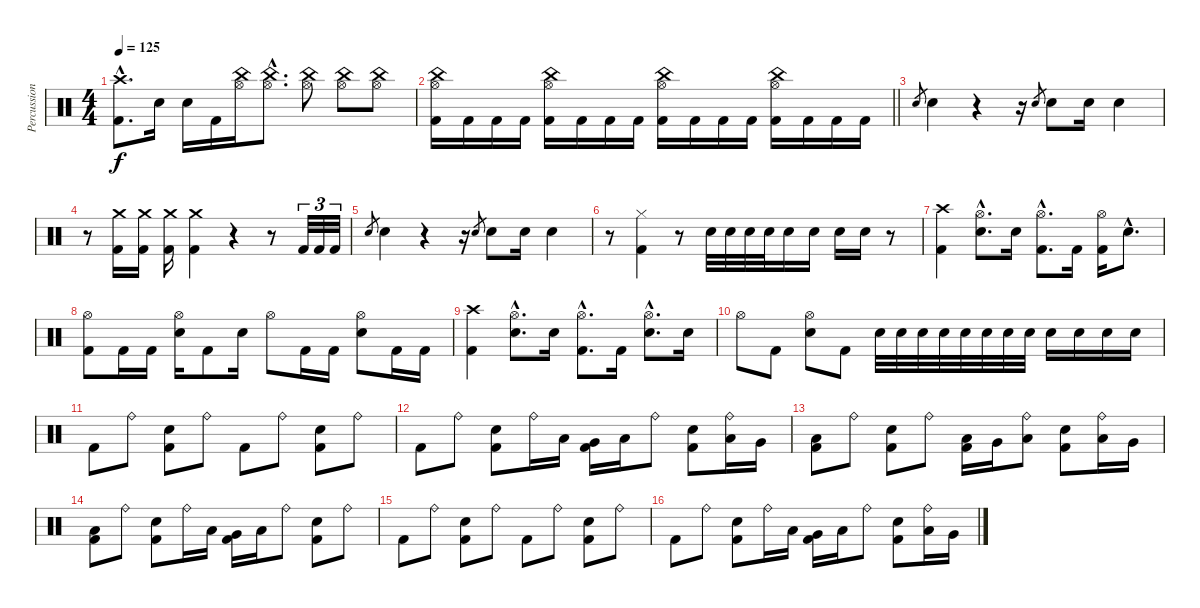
\track ("Percussion" "Percussion") {instrument percussion}
\staff {score}
\articulation defaults
\ts (4 4)
\tempo 125
\clef neutral
\ks c
("Crash high (hit)"{hac} "Kick (hit) 2"{hac}).8{d dy f} "Electric Snare (hit)".16 "Electric Snare (hit)".16 "Kick (hit) 2".16 ("China (hit)" "Hi-Hat (open)").16 ("China (hit)"{hac} "Hi-Hat (open)"{hac}).8{d} ("China (hit)" "Hi-Hat (open)").8 ("China (hit)" "Hi-Hat (open)").8 ("China (hit)" "Hi-Hat (open)").8 |
\barLineRight lightlight
("China (hit)" "Hi-Hat (open)" "Kick (hit) 2").16 "Kick (hit) 2".16 "Kick (hit) 2".16 "Kick (hit) 2".16 ("China (hit)" "Hi-Hat (open)" "Kick (hit) 2").16 "Kick (hit) 2".16 "Kick (hit) 2".16 "Kick (hit) 2".16 ("China (hit)" "Hi-Hat (open)" "Kick (hit) 2").16 "Kick (hit) 2".16 "Kick (hit) 2".16 "Kick (hit) 2".16 ("China (hit)" "Hi-Hat (open)" "Kick (hit) 2").16 "Kick (hit) 2".16 "Kick (hit) 2".16 "Kick (hit) 2".16 |
"Electric Snare (hit)".8{gr} "Electric Snare (hit)".4 r.4 r.16 "Electric Snare (hit)".8{gr} "Electric Snare (hit)".8 "Electric Snare (hit)".16 "Electric Snare (hit)".4 |
r.8 ("Crash medium (hit)" "Kick (hit) 2").16 ("Crash medium (hit)" "Kick (hit) 2").16 ("Crash medium (hit)" "Kick (hit) 2").16 ("Crash medium (hit)" "Kick (hit) 2").4 r.4 r.8 "Kick (hit) 2".32{tu (3 2)} "Kick (hit) 2".32{tu (3 2)} "Kick (hit) 2".32{tu (3 2)} |
"Electric Snare (hit)".8{gr} "Electric Snare (hit)".4 r.4 r.16 "Electric Snare (hit)".8{gr} "Electric Snare (hit)".8 "Electric Snare (hit)".16 "Electric Snare (hit)".4 |
r.8 ("Hi-Hat (closed)" "Kick (hit) 2").4 r.8 "Electric Snare (hit)".32 "Electric Snare (hit)".32 "Electric Snare (hit)".32 "Electric Snare (hit)".32 "Electric Snare (hit)".16 "Electric Snare (hit)".16 "Electric Snare (hit)".16 "Electric Snare (hit)".16 r.8 |
("Crash high (hit)" "Kick (hit) 2").4 ("Hi-Hat (open)"{hac} "Electric Snare (hit)"{hac}).8{d} "Electric Snare (hit)".16 ("Hi-Hat (open)"{hac} "Kick (hit) 2"{hac}).8{d} "Kick (hit) 2".16 ("Hi-Hat (open)" "Kick (hit) 2").16 "Electric Snare (hit)"{hac}.8{d} |
("Hi-Hat (open)" "Kick (hit) 2").8 "Kick (hit) 2".16 "Kick (hit) 2".16 ("Hi-Hat (open)" "Electric Snare (hit)").16 "Kick (hit) 2".8 "Electric Snare (hit)".16 "Hi-Hat (open)".8 "Kick (hit) 2".16 "Kick (hit) 2".16 ("Hi-Hat (open)" "Electric Snare (hit)").8 "Kick (hit) 2".16 "Kick (hit) 2".16 |
("Crash high (hit)" "Kick (hit) 2").4 ("Hi-Hat (open)"{hac} "Electric Snare (hit)"{hac}).8{d} "Electric Snare (hit)".16 ("Hi-Hat (open)"{hac} "Kick (hit) 2"{hac}).8{d} "Kick (hit) 2".16 ("Hi-Hat (open)"{hac} "Electric Snare (hit)"{hac}).8{d} "Electric Snare (hit)".16 |
"Hi-Hat (open)".8 "Kick (hit) 2".8 ("Hi-Hat (open)" "Electric Snare (hit)").8 "Kick (hit) 2".8 "Electric Snare (hit)".32 "Electric Snare (hit)".32 "Electric Snare (hit)".32 "Electric Snare (hit)".32 "Electric Snare (hit)".32 "Electric Snare (hit)".32 "Electric Snare (hit)".32 "Electric Snare (hit)".32 "Electric Snare (hit)".16 "Electric Snare (hit)".16 "Electric Snare (hit)".16 "Electric Snare (hit)".16 |
"Kick (hit) 2".8 "Ride (bell)".8 ("Electric Snare (hit)" "Kick (hit) 2").8 "Ride (bell)".8 "Kick (hit) 2".8 "Ride (bell)".8 ("Electric Snare (hit)" "Kick (hit) 2").8 "Ride (bell)".8 |
"Kick (hit) 2".8 "Ride (bell)".8 ("Electric Snare (hit)" "Kick (hit) 2").8 "Ride (bell)".16 "Low Tom (hit)".16 ("Very Low Tom (hit)" "Kick (hit) 2").16 "Low Floor Tom (hit)".16 "Ride (bell)".8 ("Electric Snare (hit)" "Kick (hit) 2").8 ("Ride (bell)" "Low Tom (hit)").16 "Very Low Tom (hit)".16 |
("Low Floor Tom (hit)" "Kick (hit) 2").8 "Ride (bell)".8 ("Electric Snare (hit)" "Kick (hit) 2").8 "Ride (bell)".8 ("Low Tom (hit)" "Kick (hit) 2").16 "Very Low Tom (hit)".16 ("Ride (bell)" "Low Floor Tom (hit)").8 ("Electric Snare (hit)" "Kick (hit) 2").8 ("Ride (bell)" "Low Tom (hit)").16 "Very Low Tom (hit)".16 |
("Low Floor Tom (hit)" "Kick (hit) 2").8 "Ride (bell)".8 ("Electric Snare (hit)" "Kick (hit) 2").8 "Ride (bell)".16 "Low Tom (hit)".16 ("Very Low Tom (hit)" "Kick (hit) 2").16 "Low Floor Tom (hit)".16 "Ride (bell)".8 ("Electric Snare (hit)" "Kick (hit) 2").8 "Ride (bell)".8 |
"Kick (hit) 2".8 "Ride (bell)".8 ("Electric Snare (hit)" "Kick (hit) 2").8 "Ride (bell)".8 "Kick (hit) 2".8 "Ride (bell)".8 ("Electric Snare (hit)" "Kick (hit) 2").8 "Ride (bell)".8 |
"Kick (hit) 2".8 "Ride (bell)".8 ("Electric Snare (hit)" "Kick (hit) 2").8 "Ride (bell)".16 "Low Tom (hit)".16 ("Very Low Tom (hit)" "Kick (hit) 2").16 "Low Floor Tom (hit)".16 "Ride (bell)".8 ("Electric Snare (hit)" "Kick (hit) 2").8 ("Ride (bell)" "Low Tom (hit)").16 "Very Low Tom (hit)".16
